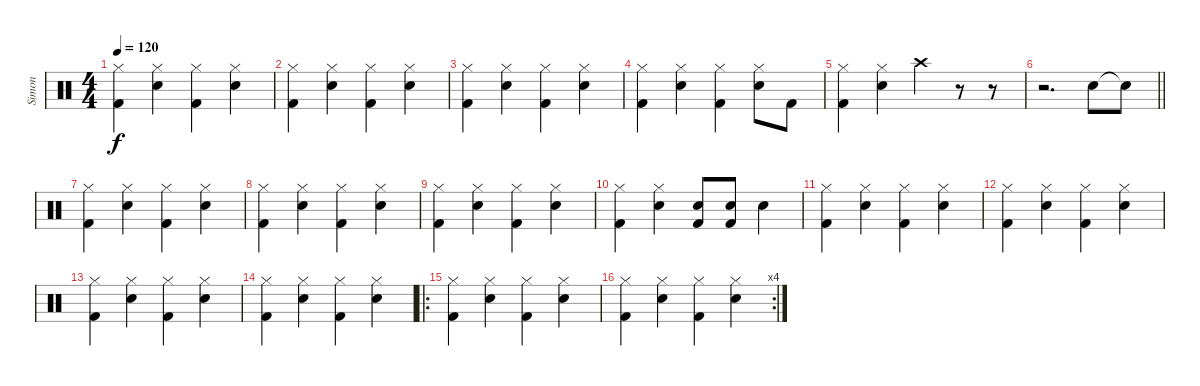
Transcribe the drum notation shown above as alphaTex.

\track ("Simon" "Simon") {instrument percussion}
\staff {score}
\articulation defaults
\ts (4 4)
\tempo 120
\clef neutral
\ks c
("Hi-Hat (closed)" "Kick (hit) 2").4{dy f} ("Hi-Hat (closed)" "Electric Snare (hit)").4 ("Hi-Hat (closed)" "Kick (hit) 2").4 ("Hi-Hat (closed)" "Electric Snare (hit)").4 |
("Hi-Hat (closed)" "Kick (hit) 2").4 ("Hi-Hat (closed)" "Electric Snare (hit)").4 ("Hi-Hat (closed)" "Kick (hit) 2").4 ("Hi-Hat (closed)" "Electric Snare (hit)").4 |
("Hi-Hat (closed)" "Kick (hit) 2").4 ("Hi-Hat (closed)" "Electric Snare (hit)").4 ("Hi-Hat (closed)" "Kick (hit) 2").4 ("Hi-Hat (closed)" "Electric Snare (hit)").4 |
("Hi-Hat (closed)" "Kick (hit) 2").4 ("Hi-Hat (closed)" "Electric Snare (hit)").4 ("Hi-Hat (closed)" "Kick (hit) 2").4 ("Hi-Hat (closed)" "Electric Snare (hit)").8 "Kick (hit) 2".8 |
("Hi-Hat (closed)" "Kick (hit) 2").4 ("Hi-Hat (closed)" "Electric Snare (hit)").4 "Crash high (hit)".4 r.8 r.8 |
\barLineRight lightlight
r.2{d} "Snare (hit) 2".8 "Snare (hit) 2"{t}.8 |
("Hi-Hat (closed)" "Kick (hit) 2").4 ("Hi-Hat (closed)" "Electric Snare (hit)").4 ("Hi-Hat (closed)" "Kick (hit) 2").4 ("Hi-Hat (closed)" "Electric Snare (hit)").4 |
("Hi-Hat (closed)" "Kick (hit) 2").4 ("Hi-Hat (closed)" "Electric Snare (hit)").4 ("Hi-Hat (closed)" "Kick (hit) 2").4 ("Hi-Hat (closed)" "Electric Snare (hit)").4 |
("Hi-Hat (closed)" "Kick (hit) 2").4 ("Hi-Hat (closed)" "Electric Snare (hit)").4 ("Hi-Hat (closed)" "Kick (hit) 2").4 ("Hi-Hat (closed)" "Electric Snare (hit)").4 |
("Hi-Hat (closed)" "Kick (hit) 2").4 ("Hi-Hat (closed)" "Electric Snare (hit)").4 ("Electric Snare (hit)" "Kick (hit) 2").8 ("Electric Snare (hit)" "Kick (hit) 2").8 "Electric Snare (hit)".4 |
("Hi-Hat (closed)" "Kick (hit) 2").4 ("Hi-Hat (closed)" "Electric Snare (hit)").4 ("Hi-Hat (closed)" "Kick (hit) 2").4 ("Hi-Hat (closed)" "Electric Snare (hit)").4 |
("Hi-Hat (closed)" "Kick (hit) 2").4 ("Hi-Hat (closed)" "Electric Snare (hit)").4 ("Hi-Hat (closed)" "Kick (hit) 2").4 ("Hi-Hat (closed)" "Electric Snare (hit)").4 |
("Hi-Hat (closed)" "Kick (hit) 2").4 ("Hi-Hat (closed)" "Electric Snare (hit)").4 ("Hi-Hat (closed)" "Kick (hit) 2").4 ("Hi-Hat (closed)" "Electric Snare (hit)").4 |
("Hi-Hat (closed)" "Kick (hit) 2").4 ("Hi-Hat (closed)" "Electric Snare (hit)").4 ("Hi-Hat (closed)" "Kick (hit) 2").4 ("Hi-Hat (closed)" "Electric Snare (hit)").4 |
\ro
("Hi-Hat (closed)" "Kick (hit) 2").4 ("Hi-Hat (closed)" "Electric Snare (hit)").4 ("Hi-Hat (closed)" "Kick (hit) 2").4 ("Hi-Hat (closed)" "Electric Snare (hit)").4 |
\rc 4
("Hi-Hat (closed)" "Kick (hit) 2").4 ("Hi-Hat (closed)" "Electric Snare (hit)").4 ("Hi-Hat (closed)" "Kick (hit) 2").4 ("Hi-Hat (closed)" "Electric Snare (hit)").4
